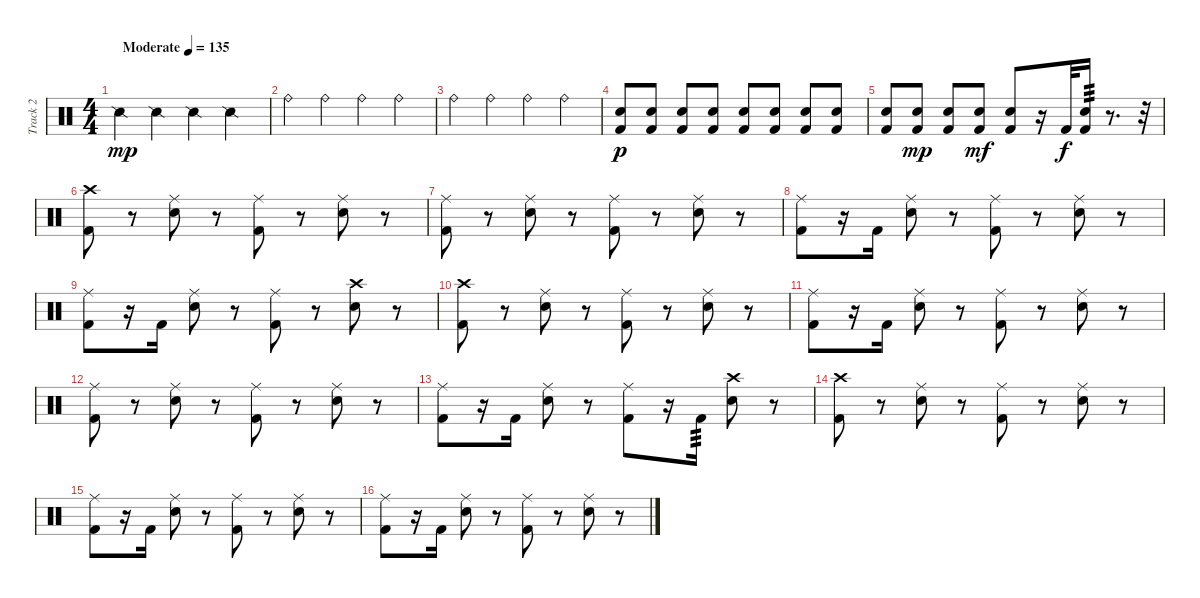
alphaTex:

\track ("Track 2" "Track 2") {instrument percussion}
\staff {score}
\articulation defaults
\ts (4 4)
\tempo (135 "Moderate")
\clef neutral
\ks c "Snare (side stick) 2".4{dy mp} "Snare (side stick) 2".4 "Snare (side stick) 2".4 "Snare (side stick) 2".4
|
"Ride (bell)".4 "Ride (bell)".4 "Ride (bell)".4 "Ride (bell)".4 |
"Ride (bell)".4 "Ride (bell)".4 "Ride (bell)".4 "Ride (bell)".4 |
("Electric Snare (hit)" "Kick (hit) 2").8{dy p} ("Electric Snare (hit)" "Kick (hit) 2").8 ("Electric Snare (hit)" "Kick (hit) 2").8 ("Electric Snare (hit)" "Kick (hit) 2").8 ("Electric Snare (hit)" "Kick (hit) 2").8 ("Electric Snare (hit)" "Kick (hit) 2").8 ("Electric Snare (hit)" "Kick (hit) 2").8 ("Electric Snare (hit)" "Kick (hit) 2").8 |
("Electric Snare (hit)" "Kick (hit) 2").8 ("Electric Snare (hit)" "Kick (hit) 2").8{dy mp} ("Electric Snare (hit)" "Kick (hit) 2").8 ("Electric Snare (hit)" "Kick (hit) 2").8{dy mf} ("Electric Snare (hit)" "Kick (hit) 2").8 r.16 "Kick (hit) 2".32{dy f} ("Electric Snare (hit)" "Kick (hit) 2").16{tp 3} r.8{d} r.32 |
("Crash high (hit)" "Kick (hit) 2").8 r.8 ("Ride (middle)" "Electric Snare (hit)").8 r.8 ("Ride (middle)" "Kick (hit) 2").8 r.8 ("Ride (middle)" "Electric Snare (hit)").8 r.8 |
("Ride (middle)" "Kick (hit) 2").8 r.8 ("Ride (middle)" "Electric Snare (hit)").8 r.8 ("Ride (middle)" "Kick (hit) 2").8 r.8 ("Ride (middle)" "Electric Snare (hit)").8 r.8 |
("Ride (middle)" "Kick (hit) 2").8 r.16 "Kick (hit) 2".16 ("Ride (middle)" "Electric Snare (hit)").8 r.8 ("Ride (middle)" "Kick (hit) 2").8 r.8 ("Ride (middle)" "Electric Snare (hit)").8 r.8 |
("Ride (middle)" "Kick (hit) 2").8 r.16 "Kick (hit) 2".16 ("Ride (middle)" "Electric Snare (hit)").8 r.8 ("Ride (middle)" "Kick (hit) 2").8 r.8 ("Crash high (hit)" "Electric Snare (hit)").8 r.8 |
("Crash high (hit)" "Kick (hit) 2").8 r.8 ("Ride (middle)" "Electric Snare (hit)").8 r.8 ("Ride (middle)" "Kick (hit) 2").8 r.8 ("Ride (middle)" "Electric Snare (hit)").8 r.8 |
("Ride (middle)" "Kick (hit) 2").8 r.16 "Kick (hit) 2".16 ("Ride (middle)" "Electric Snare (hit)").8 r.8 ("Ride (middle)" "Kick (hit) 2").8 r.8 ("Ride (middle)" "Electric Snare (hit)").8 r.8 |
("Ride (middle)" "Kick (hit) 2").8 r.8 ("Ride (middle)" "Electric Snare (hit)").8 r.8 ("Ride (middle)" "Kick (hit) 2").8 r.8 ("Ride (middle)" "Electric Snare (hit)").8 r.8 |
("Ride (middle)" "Kick (hit) 2").8 r.16 "Kick (hit) 2".16 ("Ride (middle)" "Electric Snare (hit)").8 r.8 ("Ride (middle)" "Kick (hit) 2").8 r.16 "Kick (hit) 2".16{tp 3} ("Crash high (hit)" "Electric Snare (hit)").8 r.8 |
("Crash high (hit)" "Kick (hit) 2").8 r.8 ("Ride (middle)" "Electric Snare (hit)").8 r.8 ("Ride (middle)" "Kick (hit) 2").8 r.8 ("Ride (middle)" "Electric Snare (hit)").8 r.8 |
("Ride (middle)" "Kick (hit) 2").8 r.16 "Kick (hit) 2".16 ("Ride (middle)" "Electric Snare (hit)").8 r.8 ("Ride (middle)" "Kick (hit) 2").8 r.8 ("Ride (middle)" "Electric Snare (hit)").8 r.8 |
("Ride (middle)" "Kick (hit) 2").8 r.16 "Kick (hit) 2".16 ("Ride (middle)" "Electric Snare (hit)").8 r.8 ("Ride (middle)" "Kick (hit) 2").8 r.8 ("Ride (middle)" "Electric Snare (hit)").8 r.8
